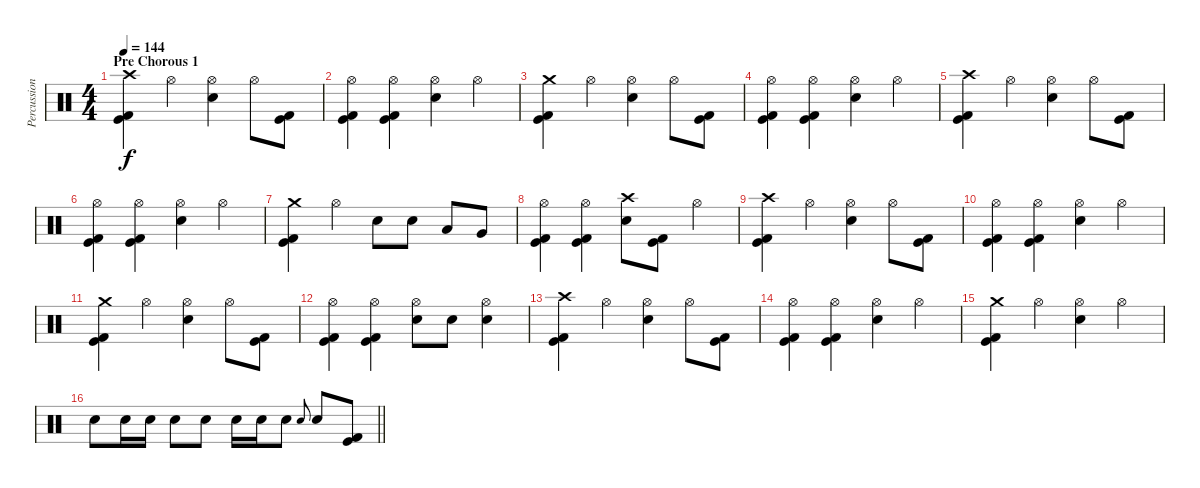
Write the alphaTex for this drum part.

\track ("Percussion" "Percussion") {instrument percussion}
\staff {score}
\articulation defaults
\ts (4 4)
\section ("" "Pre Chorous 1")
\tempo 144
\clef neutral
\ks c
("Crash high (hit)" "Kick (hit)" "Kick (hit) 2").4{dy f} "Hi-Hat (open)".4 ("Hi-Hat (open)" "Electric Snare (hit)").4 "Hi-Hat (open)".8 ("Kick (hit)" "Kick (hit) 2").8 |
("Hi-Hat (open)" "Kick (hit)" "Kick (hit) 2").4 ("Hi-Hat (open)" "Kick (hit)" "Kick (hit) 2").4 ("Hi-Hat (open)" "Electric Snare (hit)").4 "Hi-Hat (open)".4 |
("Crash medium (hit)" "Kick (hit)" "Kick (hit) 2").4 "Hi-Hat (open)".4 ("Hi-Hat (open)" "Electric Snare (hit)").4 "Hi-Hat (open)".8 ("Kick (hit)" "Kick (hit) 2").8 |
("Hi-Hat (open)" "Kick (hit)" "Kick (hit) 2").4 ("Hi-Hat (open)" "Kick (hit)" "Kick (hit) 2").4 ("Hi-Hat (open)" "Electric Snare (hit)").4 "Hi-Hat (open)".4 |
("Crash high (hit)" "Kick (hit)" "Kick (hit) 2").4 "Hi-Hat (open)".4 ("Hi-Hat (open)" "Electric Snare (hit)").4 "Hi-Hat (open)".8 ("Kick (hit)" "Kick (hit) 2").8 |
("Hi-Hat (open)" "Kick (hit)" "Kick (hit) 2").4 ("Hi-Hat (open)" "Kick (hit)" "Kick (hit) 2").4 ("Hi-Hat (open)" "Electric Snare (hit)").4 "Hi-Hat (open)".4 |
("Crash medium (hit)" "Kick (hit)" "Kick (hit) 2").4 "Hi-Hat (open)".4 "Electric Snare (hit)".8 "Electric Snare (hit)".8 "Low Tom (hit)".8 "Very Low Tom (hit)".8 |
("Hi-Hat (open)" "Kick (hit)" "Kick (hit) 2").4 ("Hi-Hat (open)" "Kick (hit)" "Kick (hit) 2").4 ("Crash high (hit)" "Electric Snare (hit)").8 ("Kick (hit)" "Kick (hit) 2").8 "Hi-Hat (open)".4 |
("Crash high (hit)" "Kick (hit)" "Kick (hit) 2").4 "Hi-Hat (open)".4 ("Hi-Hat (open)" "Electric Snare (hit)").4 "Hi-Hat (open)".8 ("Kick (hit)" "Kick (hit) 2").8 |
("Hi-Hat (open)" "Kick (hit)" "Kick (hit) 2").4 ("Hi-Hat (open)" "Kick (hit)" "Kick (hit) 2").4 ("Hi-Hat (open)" "Electric Snare (hit)").4 "Hi-Hat (open)".4 |
("Crash medium (hit)" "Kick (hit)" "Kick (hit) 2").4 "Hi-Hat (open)".4 ("Hi-Hat (open)" "Electric Snare (hit)").4 "Hi-Hat (open)".8 ("Kick (hit)" "Kick (hit) 2").8 |
("Hi-Hat (open)" "Kick (hit)" "Kick (hit) 2").4 ("Hi-Hat (open)" "Kick (hit)" "Kick (hit) 2").4 ("Hi-Hat (open)" "Electric Snare (hit)").8 "Electric Snare (hit)".8 ("Hi-Hat (open)" "Electric Snare (hit)").4 |
("Crash high (hit)" "Kick (hit)" "Kick (hit) 2").4 "Hi-Hat (open)".4 ("Hi-Hat (open)" "Electric Snare (hit)").4 "Hi-Hat (open)".8 ("Kick (hit)" "Kick (hit) 2").8 |
("Hi-Hat (open)" "Kick (hit)" "Kick (hit) 2").4 ("Hi-Hat (open)" "Kick (hit)" "Kick (hit) 2").4 ("Hi-Hat (open)" "Electric Snare (hit)").4 "Hi-Hat (open)".4 |
("Crash medium (hit)" "Kick (hit)" "Kick (hit) 2").4 "Hi-Hat (open)".4 ("Hi-Hat (open)" "Electric Snare (hit)").4 "Hi-Hat (open)".4 |
\barLineRight lightlight "Electric Snare (hit)".8 "Electric Snare (hit)".16 "Electric Snare (hit)".16 "Electric Snare (hit)".8 "Electric Snare (hit)".8 "Electric Snare (hit)".16 "Electric Snare (hit)".16 "Electric Snare (hit)".8 "Electric Snare (hit)".8{gr onbeat} "Electric Snare (hit)".8
("Kick (hit)" "Kick (hit) 2").8
